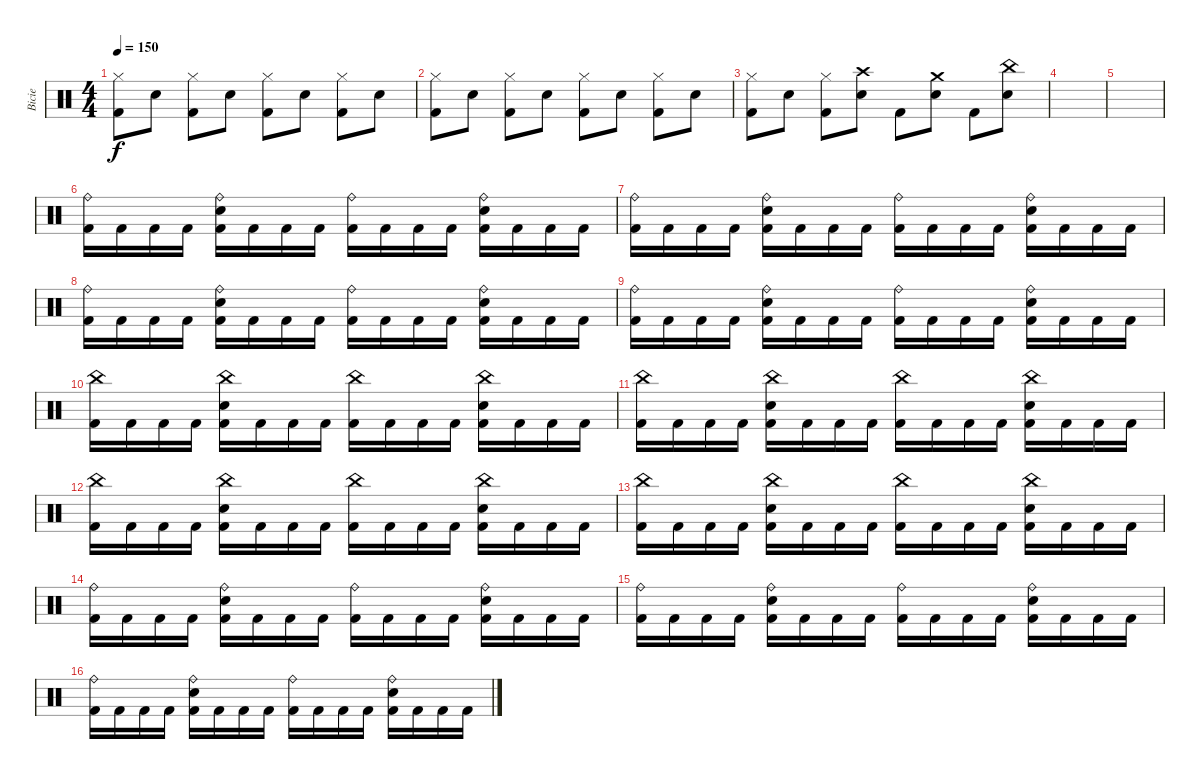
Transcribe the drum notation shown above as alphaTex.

\track ("Bicie" "Bicie") {instrument percussion}
\staff {score}
\articulation defaults
\ts (4 4)
\tempo 150
\clef neutral
\ks c
("Hi-Hat (closed)" "Kick (hit) 2").8{dy f} "Snare (hit) 2".8 ("Hi-Hat (closed)" "Kick (hit) 2").8 "Snare (hit) 2".8 ("Hi-Hat (closed)" "Kick (hit) 2").8 "Snare (hit) 2".8 ("Hi-Hat (closed)" "Kick (hit) 2").8 "Snare (hit) 2".8 |
("Hi-Hat (closed)" "Kick (hit) 2").8 "Snare (hit) 2".8 ("Hi-Hat (closed)" "Kick (hit) 2").8 "Snare (hit) 2".8 ("Hi-Hat (closed)" "Kick (hit) 2").8 "Snare (hit) 2".8 ("Hi-Hat (closed)" "Kick (hit) 2").8 "Snare (hit) 2".8 |
("Hi-Hat (closed)" "Kick (hit) 2").8 "Snare (hit) 2".8 ("Hi-Hat (closed)" "Kick (hit) 2").8 ("Crash high (hit)" "Snare (hit) 2").8 "Kick (hit) 2".8 ("Crash medium (hit)" "Snare (hit) 2").8 "Kick (hit) 2".8 ("China (hit)" "Snare (hit) 2").8 |
|
|
("Ride (bell)" "Kick (hit) 2").16 "Kick (hit) 2".16 "Kick (hit) 2".16 "Kick (hit) 2".16 ("Ride (bell)" "Snare (hit) 2" "Kick (hit) 2").16 "Kick (hit) 2".16 "Kick (hit) 2".16 "Kick (hit) 2".16 ("Ride (bell)" "Kick (hit) 2").16 "Kick (hit) 2".16 "Kick (hit) 2".16 "Kick (hit) 2".16 ("Ride (bell)" "Snare (hit) 2" "Kick (hit) 2").16 "Kick (hit) 2".16 "Kick (hit) 2".16 "Kick (hit) 2".16 |
("Ride (bell)" "Kick (hit) 2").16 "Kick (hit) 2".16 "Kick (hit) 2".16 "Kick (hit) 2".16 ("Ride (bell)" "Snare (hit) 2" "Kick (hit) 2").16 "Kick (hit) 2".16 "Kick (hit) 2".16 "Kick (hit) 2".16 ("Ride (bell)" "Kick (hit) 2").16 "Kick (hit) 2".16 "Kick (hit) 2".16 "Kick (hit) 2".16 ("Ride (bell)" "Snare (hit) 2" "Kick (hit) 2").16 "Kick (hit) 2".16 "Kick (hit) 2".16 "Kick (hit) 2".16 |
("Ride (bell)" "Kick (hit) 2").16 "Kick (hit) 2".16 "Kick (hit) 2".16 "Kick (hit) 2".16 ("Ride (bell)" "Snare (hit) 2" "Kick (hit) 2").16 "Kick (hit) 2".16 "Kick (hit) 2".16 "Kick (hit) 2".16 ("Ride (bell)" "Kick (hit) 2").16 "Kick (hit) 2".16 "Kick (hit) 2".16 "Kick (hit) 2".16 ("Ride (bell)" "Snare (hit) 2" "Kick (hit) 2").16 "Kick (hit) 2".16 "Kick (hit) 2".16 "Kick (hit) 2".16 |
("Ride (bell)" "Kick (hit) 2").16 "Kick (hit) 2".16 "Kick (hit) 2".16 "Kick (hit) 2".16 ("Ride (bell)" "Snare (hit) 2" "Kick (hit) 2").16 "Kick (hit) 2".16 "Kick (hit) 2".16 "Kick (hit) 2".16 ("Ride (bell)" "Kick (hit) 2").16 "Kick (hit) 2".16 "Kick (hit) 2".16 "Kick (hit) 2".16 ("Ride (bell)" "Snare (hit) 2" "Kick (hit) 2").16 "Kick (hit) 2".16 "Kick (hit) 2".16 "Kick (hit) 2".16 |
("China (hit)" "Kick (hit) 2").16 "Kick (hit) 2".16 "Kick (hit) 2".16 "Kick (hit) 2".16 ("China (hit)" "Snare (hit) 2" "Kick (hit) 2").16 "Kick (hit) 2".16 "Kick (hit) 2".16 "Kick (hit) 2".16 ("China (hit)" "Kick (hit) 2").16 "Kick (hit) 2".16 "Kick (hit) 2".16 "Kick (hit) 2".16 ("China (hit)" "Snare (hit) 2" "Kick (hit) 2").16 "Kick (hit) 2".16 "Kick (hit) 2".16 "Kick (hit) 2".16 |
("China (hit)" "Kick (hit) 2").16 "Kick (hit) 2".16 "Kick (hit) 2".16 "Kick (hit) 2".16 ("China (hit)" "Snare (hit) 2" "Kick (hit) 2").16 "Kick (hit) 2".16 "Kick (hit) 2".16 "Kick (hit) 2".16 ("China (hit)" "Kick (hit) 2").16 "Kick (hit) 2".16 "Kick (hit) 2".16 "Kick (hit) 2".16 ("China (hit)" "Snare (hit) 2" "Kick (hit) 2").16 "Kick (hit) 2".16 "Kick (hit) 2".16 "Kick (hit) 2".16 |
("China (hit)" "Kick (hit) 2").16 "Kick (hit) 2".16 "Kick (hit) 2".16 "Kick (hit) 2".16 ("China (hit)" "Snare (hit) 2" "Kick (hit) 2").16 "Kick (hit) 2".16 "Kick (hit) 2".16 "Kick (hit) 2".16 ("China (hit)" "Kick (hit) 2").16 "Kick (hit) 2".16 "Kick (hit) 2".16 "Kick (hit) 2".16 ("China (hit)" "Snare (hit) 2" "Kick (hit) 2").16 "Kick (hit) 2".16 "Kick (hit) 2".16 "Kick (hit) 2".16 |
("China (hit)" "Kick (hit) 2").16 "Kick (hit) 2".16 "Kick (hit) 2".16 "Kick (hit) 2".16 ("China (hit)" "Snare (hit) 2" "Kick (hit) 2").16 "Kick (hit) 2".16 "Kick (hit) 2".16 "Kick (hit) 2".16 ("China (hit)" "Kick (hit) 2").16 "Kick (hit) 2".16 "Kick (hit) 2".16 "Kick (hit) 2".16 ("China (hit)" "Snare (hit) 2" "Kick (hit) 2").16 "Kick (hit) 2".16 "Kick (hit) 2".16 "Kick (hit) 2".16 |
("Ride (bell)" "Kick (hit) 2").16 "Kick (hit) 2".16 "Kick (hit) 2".16 "Kick (hit) 2".16 ("Ride (bell)" "Snare (hit) 2" "Kick (hit) 2").16 "Kick (hit) 2".16 "Kick (hit) 2".16 "Kick (hit) 2".16 ("Ride (bell)" "Kick (hit) 2").16 "Kick (hit) 2".16 "Kick (hit) 2".16 "Kick (hit) 2".16 ("Ride (bell)" "Snare (hit) 2" "Kick (hit) 2").16 "Kick (hit) 2".16 "Kick (hit) 2".16 "Kick (hit) 2".16 |
("Ride (bell)" "Kick (hit) 2").16 "Kick (hit) 2".16 "Kick (hit) 2".16 "Kick (hit) 2".16 ("Ride (bell)" "Snare (hit) 2" "Kick (hit) 2").16 "Kick (hit) 2".16 "Kick (hit) 2".16 "Kick (hit) 2".16 ("Ride (bell)" "Kick (hit) 2").16 "Kick (hit) 2".16 "Kick (hit) 2".16 "Kick (hit) 2".16 ("Ride (bell)" "Snare (hit) 2" "Kick (hit) 2").16 "Kick (hit) 2".16 "Kick (hit) 2".16 "Kick (hit) 2".16 |
("Ride (bell)" "Kick (hit) 2").16 "Kick (hit) 2".16 "Kick (hit) 2".16 "Kick (hit) 2".16 ("Ride (bell)" "Snare (hit) 2" "Kick (hit) 2").16 "Kick (hit) 2".16 "Kick (hit) 2".16 "Kick (hit) 2".16 ("Ride (bell)" "Kick (hit) 2").16 "Kick (hit) 2".16 "Kick (hit) 2".16 "Kick (hit) 2".16 ("Ride (bell)" "Snare (hit) 2" "Kick (hit) 2").16 "Kick (hit) 2".16 "Kick (hit) 2".16 "Kick (hit) 2".16
